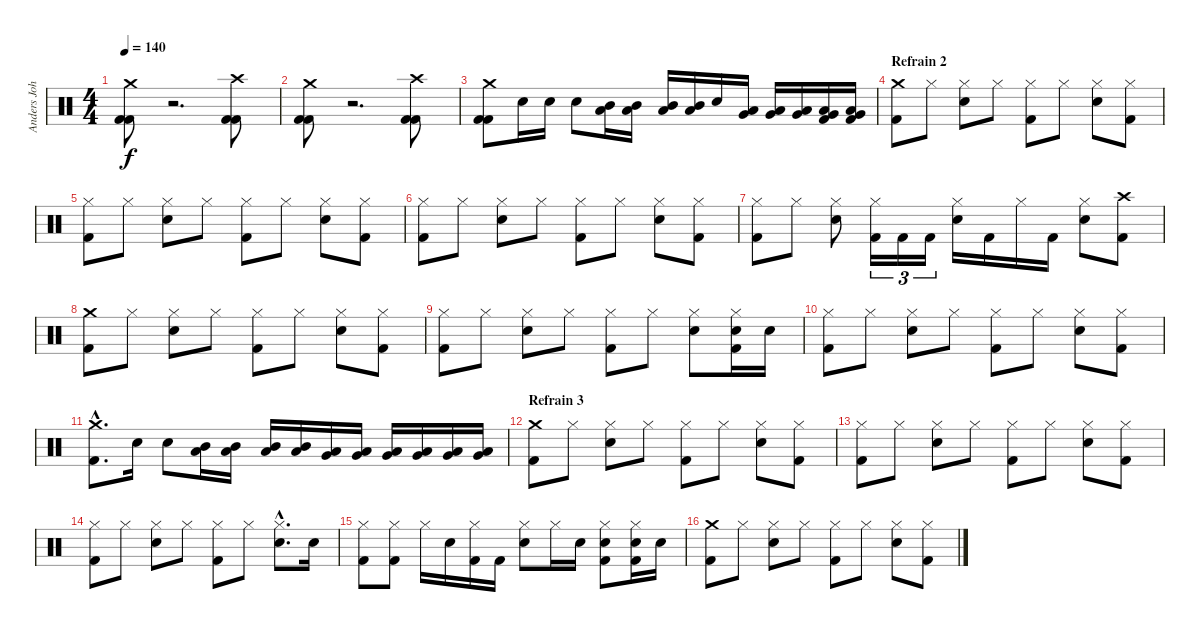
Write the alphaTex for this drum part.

\track ("Anders Johansson :: Drums" "Anders Joh") {instrument percussion}
\staff {score}
\articulation defaults
\ts (4 4)
\tempo 140
\clef neutral
\ks c
("Crash medium (hit)" "Kick (hit) 2" "Kick (hit) 2").8{dy f} r.2{d} ("Crash high (hit)" "Kick (hit) 2" "Kick (hit) 2").8 |
("Crash medium (hit)" "Kick (hit) 2" "Kick (hit) 2").8 r.2{d} ("Crash high (hit)" "Kick (hit) 2" "Kick (hit) 2").8 |
("Crash medium (hit)" "Kick (hit) 2" "Kick (hit) 2").8 "Snare (hit) 2".16 "Snare (hit) 2".16 "Snare (hit) 2".8 ("Mid Tom (hit)" "Low Tom (hit)").16 ("Mid Tom (hit)" "Low Tom (hit)").16 ("Mid Tom (hit)" "Low Tom (hit)").16 ("Mid Tom (hit)" "Low Tom (hit)").16 "Snare (hit) 2".16 ("Low Tom (hit)" "Very Low Tom (hit)").16 ("Low Tom (hit)" "Very Low Tom (hit)").16 ("Low Tom (hit)" "Very Low Tom (hit)").16 ("Low Tom (hit)" "Very Low Tom (hit)" "Kick (hit) 2").16 ("Low Tom (hit)" "Very Low Tom (hit)" "Kick (hit) 2").16 |
\section ("" "Refrain 2")
("Crash medium (hit)" "Kick (hit) 2").8 "Hi-Hat (closed)".8 ("Hi-Hat (closed)" "Snare (hit) 2").8 "Hi-Hat (closed)".8 ("Hi-Hat (closed)" "Kick (hit) 2").8 "Hi-Hat (closed)".8 ("Hi-Hat (closed)" "Snare (hit) 2").8 ("Hi-Hat (closed)" "Kick (hit) 2").8 |
("Hi-Hat (closed)" "Kick (hit) 2").8 "Hi-Hat (closed)".8 ("Hi-Hat (closed)" "Snare (hit) 2").8 "Hi-Hat (closed)".8 ("Hi-Hat (closed)" "Kick (hit) 2").8 "Hi-Hat (closed)".8 ("Hi-Hat (closed)" "Snare (hit) 2").8 ("Hi-Hat (closed)" "Kick (hit) 2").8 |
("Hi-Hat (closed)" "Kick (hit) 2").8 "Hi-Hat (closed)".8 ("Hi-Hat (closed)" "Snare (hit) 2").8 "Hi-Hat (closed)".8 ("Hi-Hat (closed)" "Kick (hit) 2").8 "Hi-Hat (closed)".8 ("Hi-Hat (closed)" "Snare (hit) 2").8 ("Hi-Hat (closed)" "Kick (hit) 2").8 |
("Hi-Hat (closed)" "Kick (hit) 2").8 "Hi-Hat (closed)".8 ("Hi-Hat (closed)" "Snare (hit) 2").8 ("Hi-Hat (closed)" "Kick (hit) 2").16{tu (3 2)} "Kick (hit) 2".16{tu (3 2)} "Kick (hit) 2".16{tu (3 2)} ("Hi-Hat (closed)" "Snare (hit) 2").16 "Kick (hit) 2".16 "Hi-Hat (closed)".16 "Kick (hit) 2".16 ("Hi-Hat (closed)" "Snare (hit) 2").8 ("Crash high (hit)" "Kick (hit) 2").8 |
("Crash medium (hit)" "Kick (hit) 2").8 "Hi-Hat (closed)".8 ("Hi-Hat (closed)" "Snare (hit) 2").8 "Hi-Hat (closed)".8 ("Hi-Hat (closed)" "Kick (hit) 2").8 "Hi-Hat (closed)".8 ("Hi-Hat (closed)" "Snare (hit) 2").8 ("Hi-Hat (closed)" "Kick (hit) 2").8 |
("Hi-Hat (closed)" "Kick (hit) 2").8 "Hi-Hat (closed)".8 ("Hi-Hat (closed)" "Snare (hit) 2").8 "Hi-Hat (closed)".8 ("Hi-Hat (closed)" "Kick (hit) 2").8 "Hi-Hat (closed)".8 ("Hi-Hat (closed)" "Snare (hit) 2").8 ("Hi-Hat (closed)" "Snare (hit) 2" "Kick (hit) 2").16 "Snare (hit) 2".16 |
("Hi-Hat (closed)" "Kick (hit) 2").8 "Hi-Hat (closed)".8 ("Hi-Hat (closed)" "Snare (hit) 2").8 "Hi-Hat (closed)".8 ("Hi-Hat (closed)" "Kick (hit) 2").8 "Hi-Hat (closed)".8 ("Hi-Hat (closed)" "Snare (hit) 2").8 ("Hi-Hat (closed)" "Kick (hit) 2").8 |
("Crash medium (hit)"{hac} "Kick (hit) 2"{hac}).8{d} "Snare (hit) 2".16 "Snare (hit) 2".8 ("Mid Tom (hit)" "Low Tom (hit)").16 ("Mid Tom (hit)" "Low Tom (hit)").16 ("Mid Tom (hit)" "Low Tom (hit)").16 ("Mid Tom (hit)" "Low Tom (hit)").16 ("Low Tom (hit)" "Very Low Tom (hit)").16 ("Low Tom (hit)" "Very Low Tom (hit)").16 ("Low Tom (hit)" "Very Low Tom (hit)").16 ("Low Tom (hit)" "Very Low Tom (hit)").16 ("Low Tom (hit)" "Very Low Tom (hit)").16 ("Low Tom (hit)" "Very Low Tom (hit)").16 |
\section ("" "Refrain 3")
("Crash medium (hit)" "Kick (hit) 2").8 "Hi-Hat (closed)".8 ("Hi-Hat (closed)" "Snare (hit) 2").8 "Hi-Hat (closed)".8 ("Hi-Hat (closed)" "Kick (hit) 2").8 "Hi-Hat (closed)".8 ("Hi-Hat (closed)" "Snare (hit) 2").8 ("Hi-Hat (closed)" "Kick (hit) 2").8 |
("Hi-Hat (closed)" "Kick (hit) 2").8 "Hi-Hat (closed)".8 ("Hi-Hat (closed)" "Snare (hit) 2").8 "Hi-Hat (closed)".8 ("Hi-Hat (closed)" "Kick (hit) 2").8 "Hi-Hat (closed)".8 ("Hi-Hat (closed)" "Snare (hit) 2").8 ("Hi-Hat (closed)" "Kick (hit) 2").8 |
("Hi-Hat (closed)" "Kick (hit) 2").8 "Hi-Hat (closed)".8 ("Hi-Hat (closed)" "Snare (hit) 2").8 "Hi-Hat (closed)".8 ("Hi-Hat (closed)" "Kick (hit) 2").8 "Hi-Hat (closed)".8 ("Hi-Hat (closed)"{hac} "Snare (hit) 2"{hac}).8{d} "Snare (hit) 2".16 |
("Hi-Hat (closed)" "Kick (hit) 2").8 ("Hi-Hat (closed)" "Kick (hit) 2").8 "Hi-Hat (closed)".16 "Snare (hit) 2".16 ("Hi-Hat (closed)" "Kick (hit) 2").16 "Kick (hit) 2".16 ("Hi-Hat (closed)" "Snare (hit) 2").8 "Hi-Hat (closed)".16 "Snare (hit) 2".16 ("Hi-Hat (closed)" "Snare (hit) 2" "Kick (hit) 2").8 ("Hi-Hat (closed)" "Snare (hit) 2" "Kick (hit) 2").16 "Snare (hit) 2".16 |
("Crash medium (hit)" "Kick (hit) 2").8 "Hi-Hat (closed)".8 ("Hi-Hat (closed)" "Snare (hit) 2").8 "Hi-Hat (closed)".8 ("Hi-Hat (closed)" "Kick (hit) 2").8 "Hi-Hat (closed)".8 ("Hi-Hat (closed)" "Snare (hit) 2").8 ("Hi-Hat (closed)" "Kick (hit) 2").8
